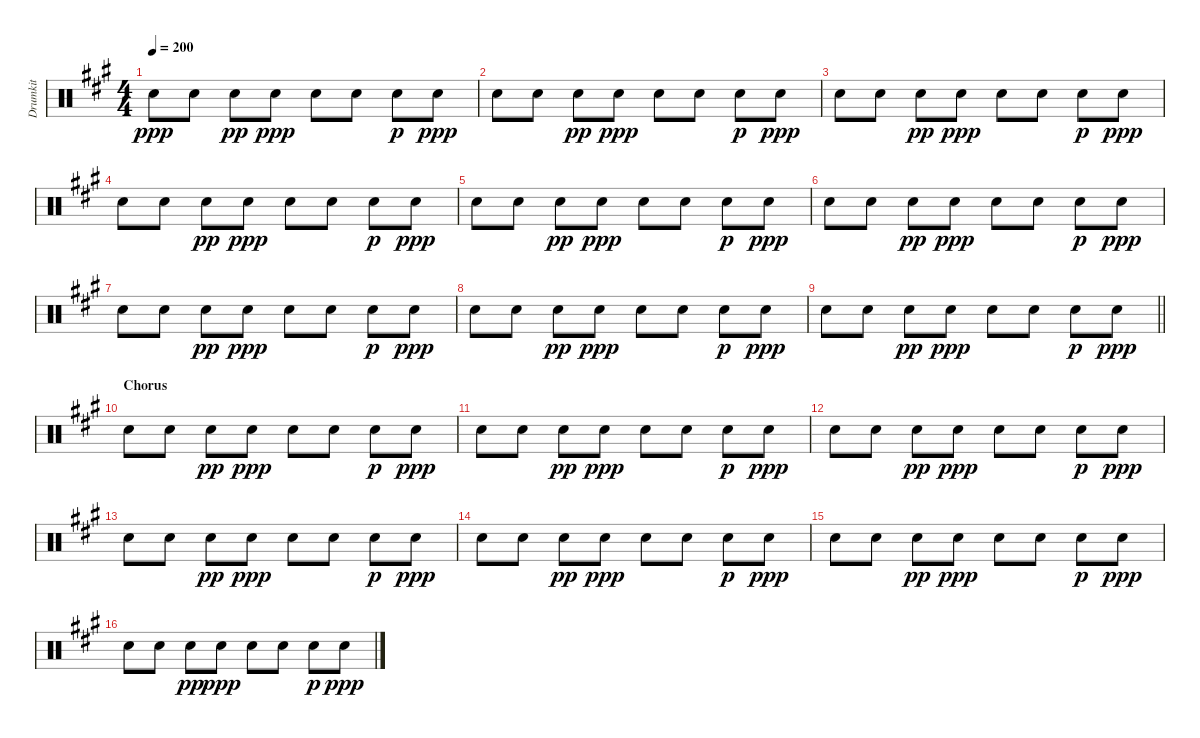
\track ("Drumkit" "Drumkit") {instrument percussion}
\staff {score}
\articulation defaults
\ts (4 4)
\tempo 200
\clef neutral
\ks a "Snare (hit) 2".8{dy ppp} "Snare (hit) 2".8 "Snare (hit) 2".8{dy pp} "Snare (hit) 2".8{dy ppp} "Snare (hit) 2".8 "Snare (hit) 2".8 "Snare (hit) 2".8{dy p} "Snare (hit) 2".8{dy ppp}
|
"Snare (hit) 2".8 "Snare (hit) 2".8 "Snare (hit) 2".8{dy pp} "Snare (hit) 2".8{dy ppp} "Snare (hit) 2".8 "Snare (hit) 2".8 "Snare (hit) 2".8{dy p} "Snare (hit) 2".8{dy ppp} |
"Snare (hit) 2".8 "Snare (hit) 2".8 "Snare (hit) 2".8{dy pp} "Snare (hit) 2".8{dy ppp} "Snare (hit) 2".8 "Snare (hit) 2".8 "Snare (hit) 2".8{dy p} "Snare (hit) 2".8{dy ppp} |
"Snare (hit) 2".8 "Snare (hit) 2".8 "Snare (hit) 2".8{dy pp} "Snare (hit) 2".8{dy ppp} "Snare (hit) 2".8 "Snare (hit) 2".8 "Snare (hit) 2".8{dy p} "Snare (hit) 2".8{dy ppp} |
"Snare (hit) 2".8 "Snare (hit) 2".8 "Snare (hit) 2".8{dy pp} "Snare (hit) 2".8{dy ppp} "Snare (hit) 2".8 "Snare (hit) 2".8 "Snare (hit) 2".8{dy p} "Snare (hit) 2".8{dy ppp} |
"Snare (hit) 2".8 "Snare (hit) 2".8 "Snare (hit) 2".8{dy pp} "Snare (hit) 2".8{dy ppp} "Snare (hit) 2".8 "Snare (hit) 2".8 "Snare (hit) 2".8{dy p} "Snare (hit) 2".8{dy ppp} |
"Snare (hit) 2".8 "Snare (hit) 2".8 "Snare (hit) 2".8{dy pp} "Snare (hit) 2".8{dy ppp} "Snare (hit) 2".8 "Snare (hit) 2".8 "Snare (hit) 2".8{dy p} "Snare (hit) 2".8{dy ppp} |
"Snare (hit) 2".8 "Snare (hit) 2".8 "Snare (hit) 2".8{dy pp} "Snare (hit) 2".8{dy ppp} "Snare (hit) 2".8 "Snare (hit) 2".8 "Snare (hit) 2".8{dy p} "Snare (hit) 2".8{dy ppp} |
\barLineRight lightlight "Snare (hit) 2".8 "Snare (hit) 2".8 "Snare (hit) 2".8{dy pp} "Snare (hit) 2".8{dy ppp} "Snare (hit) 2".8 "Snare (hit) 2".8 "Snare (hit) 2".8{dy p} "Snare (hit) 2".8{dy ppp}
|
\section ("" "Chorus")
"Snare (hit) 2".8 "Snare (hit) 2".8 "Snare (hit) 2".8{dy pp} "Snare (hit) 2".8{dy ppp} "Snare (hit) 2".8 "Snare (hit) 2".8 "Snare (hit) 2".8{dy p} "Snare (hit) 2".8{dy ppp} |
"Snare (hit) 2".8 "Snare (hit) 2".8 "Snare (hit) 2".8{dy pp} "Snare (hit) 2".8{dy ppp} "Snare (hit) 2".8 "Snare (hit) 2".8 "Snare (hit) 2".8{dy p} "Snare (hit) 2".8{dy ppp} |
"Snare (hit) 2".8 "Snare (hit) 2".8 "Snare (hit) 2".8{dy pp} "Snare (hit) 2".8{dy ppp} "Snare (hit) 2".8 "Snare (hit) 2".8 "Snare (hit) 2".8{dy p} "Snare (hit) 2".8{dy ppp} |
"Snare (hit) 2".8 "Snare (hit) 2".8 "Snare (hit) 2".8{dy pp} "Snare (hit) 2".8{dy ppp} "Snare (hit) 2".8 "Snare (hit) 2".8 "Snare (hit) 2".8{dy p} "Snare (hit) 2".8{dy ppp} |
"Snare (hit) 2".8 "Snare (hit) 2".8 "Snare (hit) 2".8{dy pp} "Snare (hit) 2".8{dy ppp} "Snare (hit) 2".8 "Snare (hit) 2".8 "Snare (hit) 2".8{dy p} "Snare (hit) 2".8{dy ppp} |
"Snare (hit) 2".8 "Snare (hit) 2".8 "Snare (hit) 2".8{dy pp} "Snare (hit) 2".8{dy ppp} "Snare (hit) 2".8 "Snare (hit) 2".8 "Snare (hit) 2".8{dy p} "Snare (hit) 2".8{dy ppp} |
"Snare (hit) 2".8 "Snare (hit) 2".8 "Snare (hit) 2".8{dy pp} "Snare (hit) 2".8{dy ppp} "Snare (hit) 2".8 "Snare (hit) 2".8 "Snare (hit) 2".8{dy p} "Snare (hit) 2".8{dy ppp}
